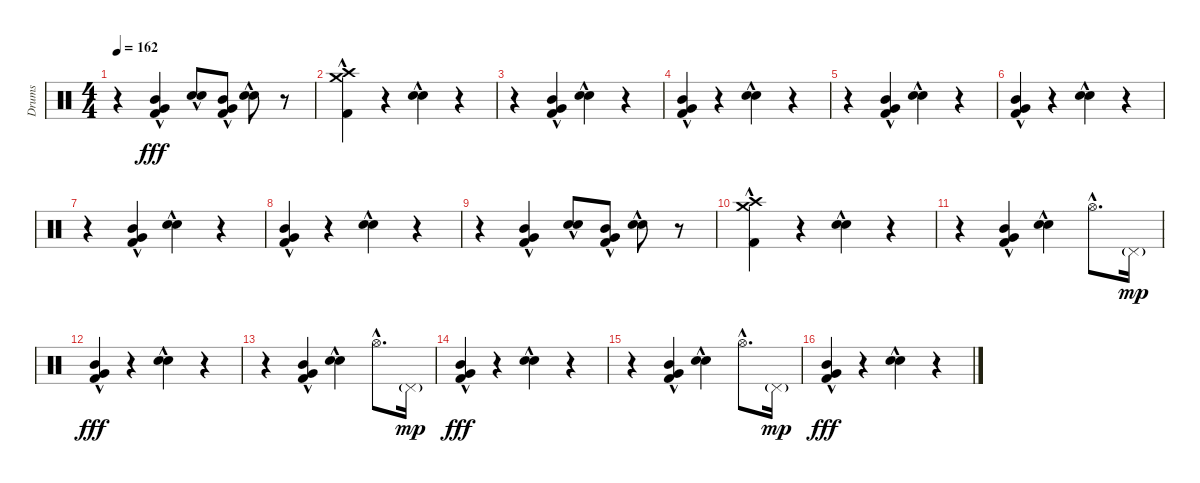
\track ("Drums" "Drums") {instrument percussion}
\staff {score}
\articulation defaults
\ts (4 4)
\tempo 162
\clef neutral
\ks c
r.4{dy fff} ("Mid Tom (hit)"{hac} "Very Low Tom (hit)"{hac} "Kick (hit) 2"{hac}).4 ("Electric Snare (hit)"{hac} "Electric Snare (hit)"{hac}).8 ("Mid Tom (hit)"{hac} "Very Low Tom (hit)"{hac} "Kick (hit) 2"{hac}).8 ("Electric Snare (hit)"{hac} "Electric Snare (hit)"{hac}).8 r.8 |
("Crash medium (hit)" "Crash high (hit)"{hac} "Kick (hit) 2"{hac}).4 r.4 ("Electric Snare (hit)"{hac} "Electric Snare (hit)"{hac}).4 r.4 |
r.4 ("Mid Tom (hit)"{hac} "Very Low Tom (hit)"{hac} "Kick (hit) 2"{hac}).4 ("Electric Snare (hit)"{hac} "Electric Snare (hit)"{hac}).4 r.4 |
("Mid Tom (hit)"{hac} "Very Low Tom (hit)"{hac} "Kick (hit) 2"{hac}).4 r.4 ("Electric Snare (hit)"{hac} "Electric Snare (hit)"{hac}).4 r.4 |
r.4 ("Mid Tom (hit)"{hac} "Very Low Tom (hit)"{hac} "Kick (hit) 2"{hac}).4 ("Electric Snare (hit)"{hac} "Electric Snare (hit)"{hac}).4 r.4 |
("Mid Tom (hit)"{hac} "Very Low Tom (hit)"{hac} "Kick (hit) 2"{hac}).4 r.4 ("Electric Snare (hit)"{hac} "Electric Snare (hit)"{hac}).4 r.4 |
r.4 ("Mid Tom (hit)"{hac} "Very Low Tom (hit)"{hac} "Kick (hit) 2"{hac}).4 ("Electric Snare (hit)"{hac} "Electric Snare (hit)"{hac}).4 r.4 |
("Mid Tom (hit)"{hac} "Very Low Tom (hit)"{hac} "Kick (hit) 2"{hac}).4 r.4 ("Electric Snare (hit)"{hac} "Electric Snare (hit)"{hac}).4 r.4 |
r.4 ("Mid Tom (hit)"{hac} "Very Low Tom (hit)"{hac} "Kick (hit) 2"{hac}).4 ("Electric Snare (hit)"{hac} "Electric Snare (hit)"{hac}).8 ("Mid Tom (hit)"{hac} "Very Low Tom (hit)"{hac} "Kick (hit) 2"{hac}).8 ("Electric Snare (hit)"{hac} "Electric Snare (hit)"{hac}).8 r.8 |
("Crash medium (hit)"{hac} "Crash high (hit)"{hac} "Kick (hit) 2"{hac}).4 r.4 ("Electric Snare (hit)"{hac} "Electric Snare (hit)"{hac}).4 r.4 |
r.4 ("Mid Tom (hit)"{hac} "Very Low Tom (hit)"{hac} "Kick (hit) 2"{hac}).4 ("Electric Snare (hit)"{hac} "Electric Snare (hit)"{hac}).4 "Hi-Hat (open)"{hac}.8{d} "Pedal Hi-Hat (hit)"{g}.16{dy mp} |
("Mid Tom (hit)"{hac} "Very Low Tom (hit)"{hac} "Kick (hit) 2"{hac}).4{dy fff} r.4 ("Electric Snare (hit)"{hac} "Electric Snare (hit)"{hac}).4 r.4 |
r.4 ("Mid Tom (hit)"{hac} "Very Low Tom (hit)"{hac} "Kick (hit) 2"{hac}).4 ("Electric Snare (hit)"{hac} "Electric Snare (hit)"{hac}).4 "Hi-Hat (open)"{hac}.8{d} "Pedal Hi-Hat (hit)"{g}.16{dy mp} |
("Mid Tom (hit)"{hac} "Very Low Tom (hit)"{hac} "Kick (hit) 2"{hac}).4{dy fff} r.4 ("Electric Snare (hit)"{hac} "Electric Snare (hit)"{hac}).4 r.4 |
r.4 ("Mid Tom (hit)"{hac} "Very Low Tom (hit)"{hac} "Kick (hit) 2"{hac}).4 ("Electric Snare (hit)"{hac} "Electric Snare (hit)"{hac}).4 "Hi-Hat (open)"{hac}.8{d} "Pedal Hi-Hat (hit)"{g}.16{dy mp} |
("Mid Tom (hit)"{hac} "Very Low Tom (hit)"{hac} "Kick (hit) 2"{hac}).4{dy fff} r.4 ("Electric Snare (hit)"{hac} "Electric Snare (hit)"{hac}).4 r.4
